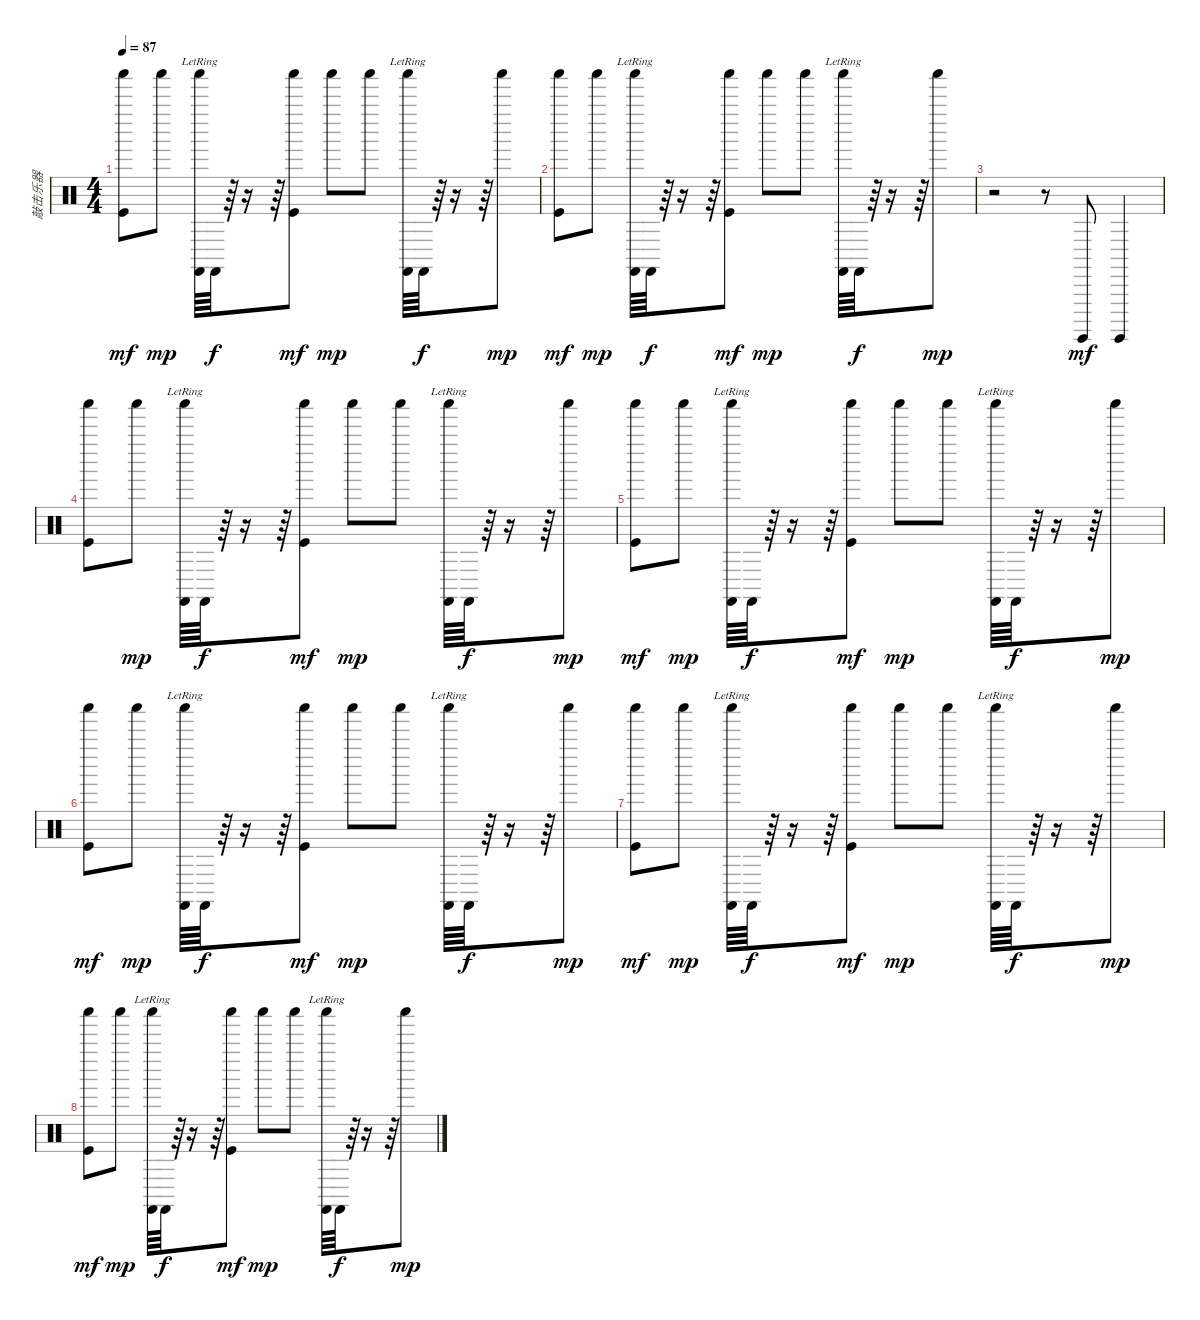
\track ("敲击乐器" "敲击乐器") {instrument percussion}
\staff {score}
\articulation defaults
\ts (4 4)
\tempo 87
\clef neutral
\ks c
("Shaker (hit)" "Kick (hit)").8{dy mf} "Shaker (hit)".8{dy mp} ("Shaker (hit)"{lr} "Castanets (hit)").64 "Castanets (hit)".64{dy f} r.64 r.16 r.64 ("Shaker (hit)" "Kick (hit)").8{dy mf} "Shaker (hit)".8{dy mp} "Shaker (hit)".8 ("Shaker (hit)"{lr} "Castanets (hit)").64 "Castanets (hit)".64{dy f} r.64 r.16 r.64 "Shaker (hit)".8{dy mp} |
("Shaker (hit)" "Kick (hit)").8{dy mf} "Shaker (hit)".8{dy mp} ("Shaker (hit)"{lr} "Castanets (hit)").64 "Castanets (hit)".64{dy f} r.64 r.16 r.64 ("Shaker (hit)" "Kick (hit)").8{dy mf} "Shaker (hit)".8{dy mp} "Shaker (hit)".8 ("Shaker (hit)"{lr} "Castanets (hit)").64 "Castanets (hit)".64{dy f} r.64 r.16 r.64 "Shaker (hit)".8{dy mp} |
r.2 r.8 "Surdo (hit)".8{dy mf} "Surdo (hit)".4 |
("Shaker (hit)" "Kick (hit)").8 "Shaker (hit)".8{dy mp} ("Shaker (hit)"{lr} "Castanets (hit)").64 "Castanets (hit)".64{dy f} r.64 r.16 r.64 ("Shaker (hit)" "Kick (hit)").8{dy mf} "Shaker (hit)".8{dy mp} "Shaker (hit)".8 ("Shaker (hit)"{lr} "Castanets (hit)").64 "Castanets (hit)".64{dy f} r.64 r.16 r.64 "Shaker (hit)".8{dy mp} |
("Shaker (hit)" "Kick (hit)").8{dy mf} "Shaker (hit)".8{dy mp} ("Shaker (hit)"{lr} "Castanets (hit)").64 "Castanets (hit)".64{dy f} r.64 r.16 r.64 ("Shaker (hit)" "Kick (hit)").8{dy mf} "Shaker (hit)".8{dy mp} "Shaker (hit)".8 ("Shaker (hit)"{lr} "Castanets (hit)").64 "Castanets (hit)".64{dy f} r.64 r.16 r.64 "Shaker (hit)".8{dy mp} |
("Shaker (hit)" "Kick (hit)").8{dy mf} "Shaker (hit)".8{dy mp} ("Shaker (hit)"{lr} "Castanets (hit)").64 "Castanets (hit)".64{dy f} r.64 r.16 r.64 ("Shaker (hit)" "Kick (hit)").8{dy mf} "Shaker (hit)".8{dy mp} "Shaker (hit)".8 ("Shaker (hit)"{lr} "Castanets (hit)").64 "Castanets (hit)".64{dy f} r.64 r.16 r.64 "Shaker (hit)".8{dy mp} |
("Shaker (hit)" "Kick (hit)").8{dy mf} "Shaker (hit)".8{dy mp} ("Shaker (hit)"{lr} "Castanets (hit)").64 "Castanets (hit)".64{dy f} r.64 r.16 r.64 ("Shaker (hit)" "Kick (hit)").8{dy mf} "Shaker (hit)".8{dy mp} "Shaker (hit)".8 ("Shaker (hit)"{lr} "Castanets (hit)").64 "Castanets (hit)".64{dy f} r.64 r.16 r.64 "Shaker (hit)".8{dy mp} |
("Shaker (hit)" "Kick (hit)").8{dy mf} "Shaker (hit)".8{dy mp} ("Shaker (hit)"{lr} "Castanets (hit)").64 "Castanets (hit)".64{dy f} r.64 r.16 r.64 ("Shaker (hit)" "Kick (hit)").8{dy mf} "Shaker (hit)".8{dy mp} "Shaker (hit)".8 ("Shaker (hit)"{lr} "Castanets (hit)").64 "Castanets (hit)".64{dy f} r.64 r.16 r.64 "Shaker (hit)".8{dy mp}
